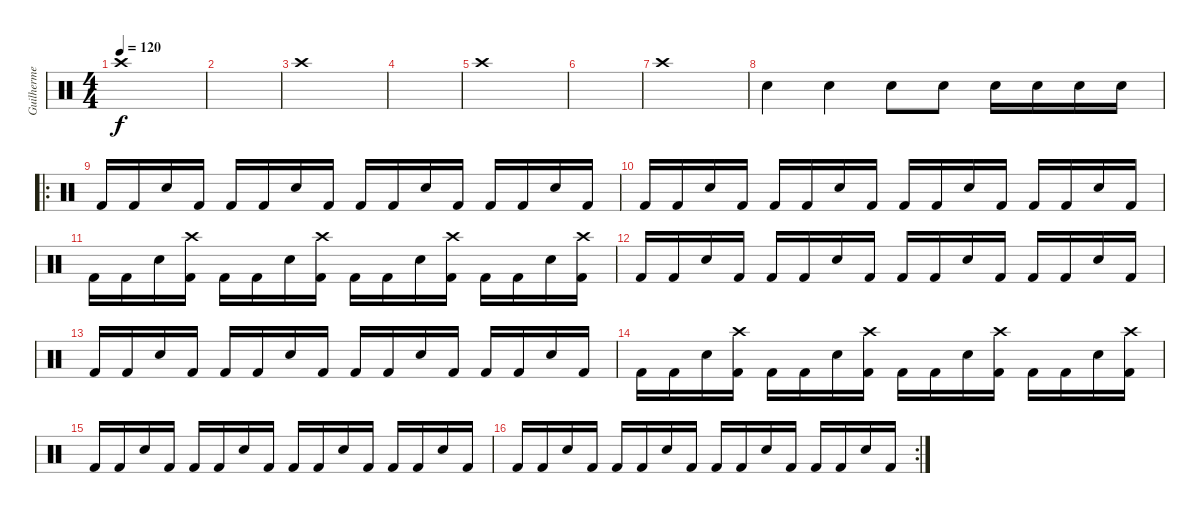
\track ("Guilherme" "Guilherme") {instrument percussion}
\staff {score}
\articulation defaults
\ts (4 4)
\tempo 120
\clef neutral
\ks c "Crash high (hit)".1{dy f}
|
|
"Crash high (hit)".1 |
|
"Crash high (hit)".1 |
|
"Crash high (hit)".1 |
"Snare (hit) 2".4 "Snare (hit) 2".4 "Snare (hit) 2".8 "Snare (hit) 2".8 "Snare (hit) 2".16 "Snare (hit) 2".16 "Snare (hit) 2".16 "Snare (hit) 2".16 |
\ro "Kick (hit) 2".16 "Kick (hit) 2".16 "Snare (hit) 2".16 "Kick (hit) 2".16 "Kick (hit) 2".16 "Kick (hit) 2".16 "Snare (hit) 2".16 "Kick (hit) 2".16 "Kick (hit) 2".16 "Kick (hit) 2".16 "Snare (hit) 2".16 "Kick (hit) 2".16 "Kick (hit) 2".16 "Kick (hit) 2".16 "Snare (hit) 2".16 "Kick (hit) 2".16
|
"Kick (hit) 2".16 "Kick (hit) 2".16 "Snare (hit) 2".16 "Kick (hit) 2".16 "Kick (hit) 2".16 "Kick (hit) 2".16 "Snare (hit) 2".16 "Kick (hit) 2".16 "Kick (hit) 2".16 "Kick (hit) 2".16 "Snare (hit) 2".16 "Kick (hit) 2".16 "Kick (hit) 2".16 "Kick (hit) 2".16 "Snare (hit) 2".16 "Kick (hit) 2".16 |
"Kick (hit) 2".16 "Kick (hit) 2".16 "Snare (hit) 2".16 ("Crash high (hit)" "Kick (hit) 2").16 "Kick (hit) 2".16 "Kick (hit) 2".16 "Snare (hit) 2".16 ("Crash high (hit)" "Kick (hit) 2").16 "Kick (hit) 2".16 "Kick (hit) 2".16 "Snare (hit) 2".16 ("Crash high (hit)" "Kick (hit) 2").16 "Kick (hit) 2".16 "Kick (hit) 2".16 "Snare (hit) 2".16 ("Crash high (hit)" "Kick (hit) 2").16 |
"Kick (hit) 2".16 "Kick (hit) 2".16 "Snare (hit) 2".16 "Kick (hit) 2".16 "Kick (hit) 2".16 "Kick (hit) 2".16 "Snare (hit) 2".16 "Kick (hit) 2".16 "Kick (hit) 2".16 "Kick (hit) 2".16 "Snare (hit) 2".16 "Kick (hit) 2".16 "Kick (hit) 2".16 "Kick (hit) 2".16 "Snare (hit) 2".16 "Kick (hit) 2".16 |
"Kick (hit) 2".16 "Kick (hit) 2".16 "Snare (hit) 2".16 "Kick (hit) 2".16 "Kick (hit) 2".16 "Kick (hit) 2".16 "Snare (hit) 2".16 "Kick (hit) 2".16 "Kick (hit) 2".16 "Kick (hit) 2".16 "Snare (hit) 2".16 "Kick (hit) 2".16 "Kick (hit) 2".16 "Kick (hit) 2".16 "Snare (hit) 2".16 "Kick (hit) 2".16 |
"Kick (hit) 2".16 "Kick (hit) 2".16 "Snare (hit) 2".16 ("Crash high (hit)" "Kick (hit) 2").16 "Kick (hit) 2".16 "Kick (hit) 2".16 "Snare (hit) 2".16 ("Crash high (hit)" "Kick (hit) 2").16 "Kick (hit) 2".16 "Kick (hit) 2".16 "Snare (hit) 2".16 ("Crash high (hit)" "Kick (hit) 2").16 "Kick (hit) 2".16 "Kick (hit) 2".16 "Snare (hit) 2".16 ("Crash high (hit)" "Kick (hit) 2").16 |
"Kick (hit) 2".16 "Kick (hit) 2".16 "Snare (hit) 2".16 "Kick (hit) 2".16 "Kick (hit) 2".16 "Kick (hit) 2".16 "Snare (hit) 2".16 "Kick (hit) 2".16 "Kick (hit) 2".16 "Kick (hit) 2".16 "Snare (hit) 2".16 "Kick (hit) 2".16 "Kick (hit) 2".16 "Kick (hit) 2".16 "Snare (hit) 2".16 "Kick (hit) 2".16 |
\rc 2 "Kick (hit) 2".16 "Kick (hit) 2".16 "Snare (hit) 2".16 "Kick (hit) 2".16 "Kick (hit) 2".16 "Kick (hit) 2".16 "Snare (hit) 2".16 "Kick (hit) 2".16 "Kick (hit) 2".16 "Kick (hit) 2".16 "Snare (hit) 2".16 "Kick (hit) 2".16 "Kick (hit) 2".16 "Kick (hit) 2".16 "Snare (hit) 2".16 "Kick (hit) 2".16
